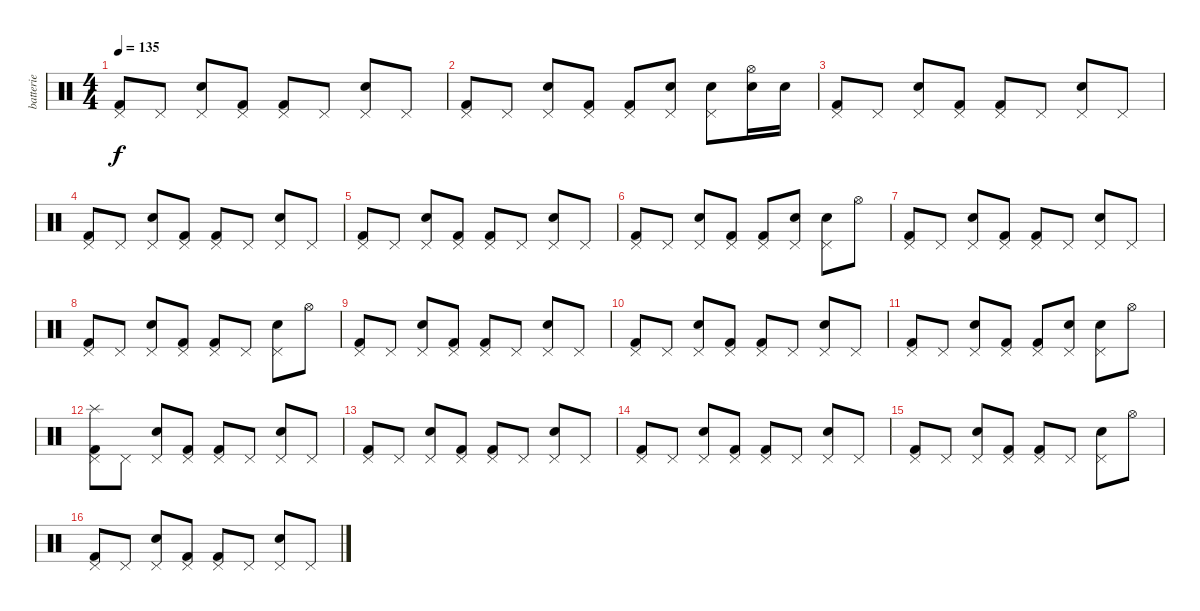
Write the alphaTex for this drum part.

\track ("batterie" "batterie") {instrument percussion}
\staff {score}
\articulation defaults
\ts (4 4)
\tempo 135
\clef neutral
\ks c
("Pedal Hi-Hat (hit)" "Kick (hit) 2").8{dy f} "Pedal Hi-Hat (hit)".8 ("Pedal Hi-Hat (hit)" "Snare (hit) 2").8 ("Pedal Hi-Hat (hit)" "Kick (hit) 2").8 ("Pedal Hi-Hat (hit)" "Kick (hit) 2").8 "Pedal Hi-Hat (hit)".8 ("Pedal Hi-Hat (hit)" "Snare (hit) 2").8 "Pedal Hi-Hat (hit)".8 |
("Pedal Hi-Hat (hit)" "Kick (hit) 2").8 "Pedal Hi-Hat (hit)".8 ("Pedal Hi-Hat (hit)" "Snare (hit) 2").8 ("Pedal Hi-Hat (hit)" "Kick (hit) 2").8 ("Pedal Hi-Hat (hit)" "Kick (hit) 2").8 ("Pedal Hi-Hat (hit)" "Snare (hit) 2").8 ("Pedal Hi-Hat (hit)" "Snare (hit) 2").8 ("Hi-Hat (open)" "Snare (hit) 2").16 "Snare (hit) 2".16 |
("Pedal Hi-Hat (hit)" "Kick (hit) 2").8 "Pedal Hi-Hat (hit)".8 ("Pedal Hi-Hat (hit)" "Snare (hit) 2").8 ("Pedal Hi-Hat (hit)" "Kick (hit) 2").8 ("Pedal Hi-Hat (hit)" "Kick (hit) 2").8 "Pedal Hi-Hat (hit)".8 ("Pedal Hi-Hat (hit)" "Snare (hit) 2").8 "Pedal Hi-Hat (hit)".8 |
("Pedal Hi-Hat (hit)" "Kick (hit) 2").8 "Pedal Hi-Hat (hit)".8 ("Pedal Hi-Hat (hit)" "Snare (hit) 2").8 ("Pedal Hi-Hat (hit)" "Kick (hit) 2").8 ("Pedal Hi-Hat (hit)" "Kick (hit) 2").8 "Pedal Hi-Hat (hit)".8 ("Pedal Hi-Hat (hit)" "Snare (hit) 2").8 "Pedal Hi-Hat (hit)".8 |
("Pedal Hi-Hat (hit)" "Kick (hit) 2").8 "Pedal Hi-Hat (hit)".8 ("Pedal Hi-Hat (hit)" "Snare (hit) 2").8 ("Pedal Hi-Hat (hit)" "Kick (hit) 2").8 ("Pedal Hi-Hat (hit)" "Kick (hit) 2").8 "Pedal Hi-Hat (hit)".8 ("Pedal Hi-Hat (hit)" "Snare (hit) 2").8 "Pedal Hi-Hat (hit)".8 |
("Pedal Hi-Hat (hit)" "Kick (hit) 2").8 "Pedal Hi-Hat (hit)".8 ("Pedal Hi-Hat (hit)" "Snare (hit) 2").8 ("Pedal Hi-Hat (hit)" "Kick (hit) 2").8 ("Pedal Hi-Hat (hit)" "Kick (hit) 2").8 ("Pedal Hi-Hat (hit)" "Snare (hit) 2").8 ("Pedal Hi-Hat (hit)" "Snare (hit) 2").8 "Hi-Hat (open)".8 |
("Pedal Hi-Hat (hit)" "Kick (hit) 2").8 "Pedal Hi-Hat (hit)".8 ("Pedal Hi-Hat (hit)" "Snare (hit) 2").8 ("Pedal Hi-Hat (hit)" "Kick (hit) 2").8 ("Pedal Hi-Hat (hit)" "Kick (hit) 2").8 "Pedal Hi-Hat (hit)".8 ("Pedal Hi-Hat (hit)" "Snare (hit) 2").8 "Pedal Hi-Hat (hit)".8 |
("Pedal Hi-Hat (hit)" "Kick (hit) 2").8 "Pedal Hi-Hat (hit)".8 ("Pedal Hi-Hat (hit)" "Snare (hit) 2").8 ("Pedal Hi-Hat (hit)" "Kick (hit) 2").8 ("Pedal Hi-Hat (hit)" "Kick (hit) 2").8 "Pedal Hi-Hat (hit)".8 ("Pedal Hi-Hat (hit)" "Snare (hit) 2").8 "Hi-Hat (open)".8 |
("Pedal Hi-Hat (hit)" "Kick (hit) 2").8 "Pedal Hi-Hat (hit)".8 ("Pedal Hi-Hat (hit)" "Snare (hit) 2").8 ("Pedal Hi-Hat (hit)" "Kick (hit) 2").8 ("Pedal Hi-Hat (hit)" "Kick (hit) 2").8 "Pedal Hi-Hat (hit)".8 ("Pedal Hi-Hat (hit)" "Snare (hit) 2").8 "Pedal Hi-Hat (hit)".8 |
("Pedal Hi-Hat (hit)" "Kick (hit) 2").8 "Pedal Hi-Hat (hit)".8 ("Pedal Hi-Hat (hit)" "Snare (hit) 2").8 ("Pedal Hi-Hat (hit)" "Kick (hit) 2").8 ("Pedal Hi-Hat (hit)" "Kick (hit) 2").8 "Pedal Hi-Hat (hit)".8 ("Pedal Hi-Hat (hit)" "Snare (hit) 2").8 "Pedal Hi-Hat (hit)".8 |
("Pedal Hi-Hat (hit)" "Kick (hit) 2").8 "Pedal Hi-Hat (hit)".8 ("Pedal Hi-Hat (hit)" "Snare (hit) 2").8 ("Pedal Hi-Hat (hit)" "Kick (hit) 2").8 ("Pedal Hi-Hat (hit)" "Kick (hit) 2").8 ("Pedal Hi-Hat (hit)" "Snare (hit) 2").8 ("Pedal Hi-Hat (hit)" "Snare (hit) 2").8 "Hi-Hat (open)".8 |
("Splash (hit)" "Pedal Hi-Hat (hit)" "Kick (hit) 2").8 "Pedal Hi-Hat (hit)".8 ("Pedal Hi-Hat (hit)" "Snare (hit) 2").8 ("Pedal Hi-Hat (hit)" "Kick (hit) 2").8 ("Pedal Hi-Hat (hit)" "Kick (hit) 2").8 "Pedal Hi-Hat (hit)".8 ("Pedal Hi-Hat (hit)" "Snare (hit) 2").8 "Pedal Hi-Hat (hit)".8 |
("Pedal Hi-Hat (hit)" "Kick (hit) 2").8 "Pedal Hi-Hat (hit)".8 ("Pedal Hi-Hat (hit)" "Snare (hit) 2").8 ("Pedal Hi-Hat (hit)" "Kick (hit) 2").8 ("Pedal Hi-Hat (hit)" "Kick (hit) 2").8 "Pedal Hi-Hat (hit)".8 ("Pedal Hi-Hat (hit)" "Snare (hit) 2").8 "Pedal Hi-Hat (hit)".8 |
("Pedal Hi-Hat (hit)" "Kick (hit) 2").8 "Pedal Hi-Hat (hit)".8 ("Pedal Hi-Hat (hit)" "Snare (hit) 2").8 ("Pedal Hi-Hat (hit)" "Kick (hit) 2").8 ("Pedal Hi-Hat (hit)" "Kick (hit) 2").8 "Pedal Hi-Hat (hit)".8 ("Pedal Hi-Hat (hit)" "Snare (hit) 2").8 "Pedal Hi-Hat (hit)".8 |
("Pedal Hi-Hat (hit)" "Kick (hit) 2").8 "Pedal Hi-Hat (hit)".8 ("Pedal Hi-Hat (hit)" "Snare (hit) 2").8 ("Pedal Hi-Hat (hit)" "Kick (hit) 2").8 ("Pedal Hi-Hat (hit)" "Kick (hit) 2").8 "Pedal Hi-Hat (hit)".8 ("Pedal Hi-Hat (hit)" "Snare (hit) 2").8 "Hi-Hat (open)".8 |
("Pedal Hi-Hat (hit)" "Kick (hit) 2").8 "Pedal Hi-Hat (hit)".8 ("Pedal Hi-Hat (hit)" "Snare (hit) 2").8 ("Pedal Hi-Hat (hit)" "Kick (hit) 2").8 ("Pedal Hi-Hat (hit)" "Kick (hit) 2").8 "Pedal Hi-Hat (hit)".8 ("Pedal Hi-Hat (hit)" "Snare (hit) 2").8 "Pedal Hi-Hat (hit)".8
